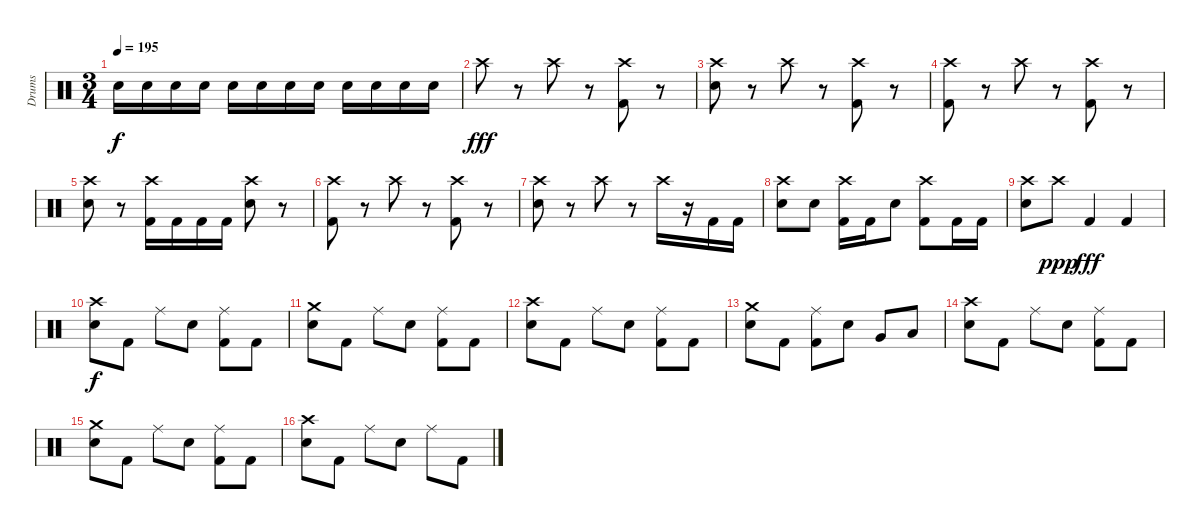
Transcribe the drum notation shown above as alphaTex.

\track ("Drums" "Drums") {instrument percussion}
\staff {score}
\articulation defaults
\ts (3 4)
\tempo 195
\clef neutral
\ks c "Electric Snare (hit)".16{dy f} "Electric Snare (hit)".16 "Electric Snare (hit)".16 "Electric Snare (hit)".16 "Electric Snare (hit)".16 "Electric Snare (hit)".16 "Electric Snare (hit)".16 "Electric Snare (hit)".16 "Electric Snare (hit)".16 "Electric Snare (hit)".16 "Electric Snare (hit)".16 "Electric Snare (hit)".16
|
"Crash high (hit)".8{dy fff} r.8 "Crash high (hit)".8 r.8 ("Crash high (hit)" "Kick (hit) 2").8 r.8 |
("Crash high (hit)" "Electric Snare (hit)").8 r.8 "Crash high (hit)".8 r.8 ("Crash high (hit)" "Kick (hit) 2").8 r.8 |
("Crash high (hit)" "Kick (hit) 2").8 r.8 "Crash high (hit)".8 r.8 ("Crash high (hit)" "Kick (hit) 2").8 r.8 |
("Crash high (hit)" "Electric Snare (hit)").8 r.8 ("Crash high (hit)" "Kick (hit) 2").16 "Kick (hit) 2".16 "Kick (hit) 2".16 "Kick (hit) 2".16 ("Crash high (hit)" "Electric Snare (hit)").8 r.8 |
("Crash high (hit)" "Kick (hit) 2").8 r.8 "Crash high (hit)".8 r.8 ("Crash high (hit)" "Kick (hit) 2").8 r.8 |
("Crash high (hit)" "Electric Snare (hit)").8 r.8 "Crash high (hit)".8 r.8 "Crash high (hit)".16 r.16 "Kick (hit) 2".16 "Kick (hit) 2".16 |
("Crash high (hit)" "Electric Snare (hit)").8 "Electric Snare (hit)".8 ("Crash high (hit)" "Kick (hit) 2").16 "Kick (hit) 2".16 "Electric Snare (hit)".8 ("Crash high (hit)" "Kick (hit) 2").8 "Kick (hit) 2".16 "Kick (hit) 2".16 |
("Crash high (hit)" "Electric Snare (hit)").8 "Crash high (hit)".8{dy ppp} "Kick (hit) 2".4{dy fff} "Kick (hit) 2".4 |
("Crash high (hit)" "Electric Snare (hit)").8{dy f} "Kick (hit) 2".8 "Ride (middle)".8 "Electric Snare (hit)".8 ("Ride (middle)" "Kick (hit) 2").8 "Kick (hit) 2".8 |
("Crash medium (hit)" "Electric Snare (hit)").8 "Kick (hit) 2".8 "Ride (middle)".8 "Electric Snare (hit)".8 ("Ride (middle)" "Kick (hit) 2").8 "Kick (hit) 2".8 |
("Crash high (hit)" "Electric Snare (hit)").8 "Kick (hit) 2".8 "Ride (middle)".8 "Electric Snare (hit)".8 ("Ride (middle)" "Kick (hit) 2").8 "Kick (hit) 2".8 |
("Crash medium (hit)" "Electric Snare (hit)").8 "Kick (hit) 2".8 ("Ride (middle)" "Kick (hit) 2").8 "Electric Snare (hit)".8 "Very Low Tom (hit)".8 "Low Floor Tom (hit)".8 |
("Crash high (hit)" "Electric Snare (hit)").8 "Kick (hit) 2".8 "Ride (middle)".8 "Electric Snare (hit)".8 ("Ride (middle)" "Kick (hit) 2").8 "Kick (hit) 2".8 |
("Crash medium (hit)" "Electric Snare (hit)").8 "Kick (hit) 2".8 "Ride (middle)".8 "Electric Snare (hit)".8 ("Ride (middle)" "Kick (hit) 2").8 "Kick (hit) 2".8 |
("Crash high (hit)" "Electric Snare (hit)").8 "Kick (hit) 2".8 "Ride (middle)".8 "Electric Snare (hit)".8 "Ride (middle)".8 "Kick (hit) 2".8
